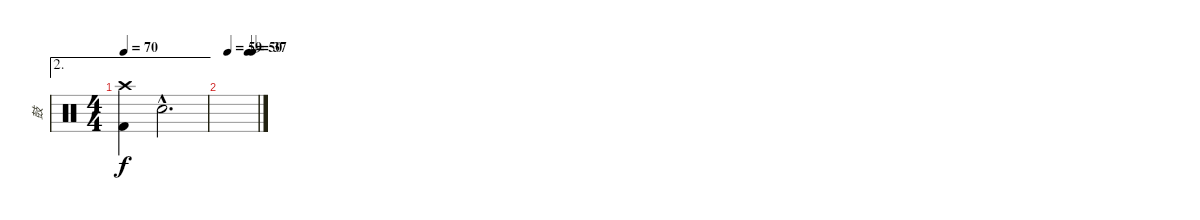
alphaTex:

\track ("鼓" "鼓") {instrument percussion}
\staff {score}
\articulation defaults
\ae 2
\ts (4 4)
\tempo 70
\clef neutral
\ks c
("Crash high (hit)" "Kick (hit) 2").4{dy f} "Electric Snare (hit)"{hac}.2{d} |
\tempo (59 0.1875)
\tempo (50 0.75)
\tempo (37 0.875)
